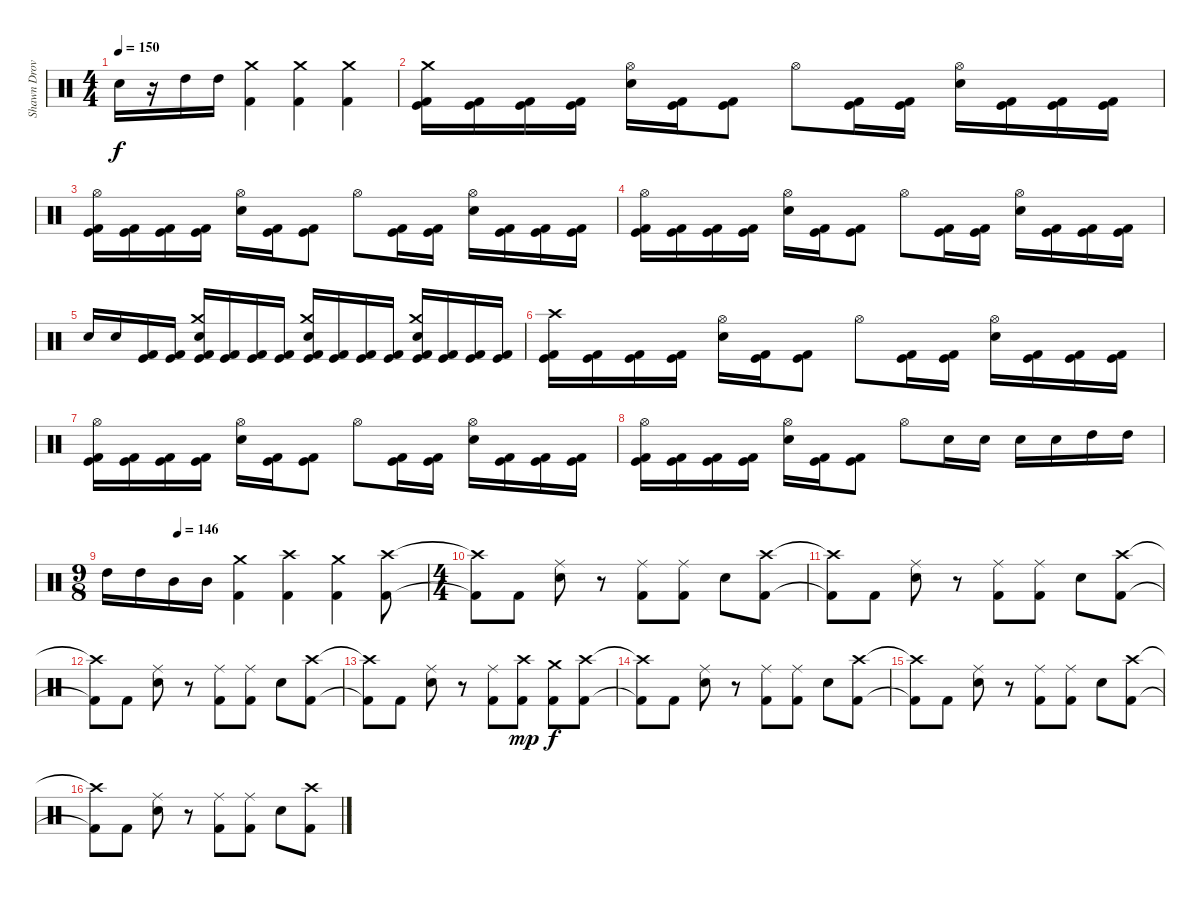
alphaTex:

\track ("Shawn Drover" "Shawn Drov") {instrument percussion}
\staff {score}
\articulation defaults
\ts (4 4)
\tempo 150
\clef neutral
\ks c "Snare (hit) 2".16{dy f}
r.16 "High Tom (hit)".16 "High Tom (hit)".16 ("Crash medium (hit)" "Kick (hit) 2").4 ("Crash medium (hit)" "Kick (hit) 2").4 ("Crash medium (hit)" "Kick (hit) 2").4 |
("Crash medium (hit)" "Kick (hit)" "Kick (hit) 2").16 ("Kick (hit)" "Kick (hit) 2").16 ("Kick (hit)" "Kick (hit) 2").16 ("Kick (hit)" "Kick (hit) 2").16 ("Hi-Hat (open)" "Snare (hit) 2").16 ("Kick (hit)" "Kick (hit) 2").16 ("Kick (hit)" "Kick (hit) 2").8 "Hi-Hat (open)".8 ("Kick (hit)" "Kick (hit) 2").16 ("Kick (hit)" "Kick (hit) 2").16 ("Hi-Hat (open)" "Snare (hit) 2").16 ("Kick (hit)" "Kick (hit) 2").16 ("Kick (hit)" "Kick (hit) 2").16 ("Kick (hit)" "Kick (hit) 2").16 |
("Hi-Hat (open)" "Kick (hit)" "Kick (hit) 2").16 ("Kick (hit)" "Kick (hit) 2").16 ("Kick (hit)" "Kick (hit) 2").16 ("Kick (hit)" "Kick (hit) 2").16 ("Hi-Hat (open)" "Snare (hit) 2").16 ("Kick (hit)" "Kick (hit) 2").16 ("Kick (hit)" "Kick (hit) 2").8 "Hi-Hat (open)".8 ("Kick (hit)" "Kick (hit) 2").16 ("Kick (hit)" "Kick (hit) 2").16 ("Hi-Hat (open)" "Snare (hit) 2").16 ("Kick (hit)" "Kick (hit) 2").16 ("Kick (hit)" "Kick (hit) 2").16 ("Kick (hit)" "Kick (hit) 2").16 |
("Hi-Hat (open)" "Kick (hit)" "Kick (hit) 2").16 ("Kick (hit)" "Kick (hit) 2").16 ("Kick (hit)" "Kick (hit) 2").16 ("Kick (hit)" "Kick (hit) 2").16 ("Hi-Hat (open)" "Snare (hit) 2").16 ("Kick (hit)" "Kick (hit) 2").16 ("Kick (hit)" "Kick (hit) 2").8 "Hi-Hat (open)".8 ("Kick (hit)" "Kick (hit) 2").16 ("Kick (hit)" "Kick (hit) 2").16 ("Hi-Hat (open)" "Snare (hit) 2").16 ("Kick (hit)" "Kick (hit) 2").16 ("Kick (hit)" "Kick (hit) 2").16 ("Kick (hit)" "Kick (hit) 2").16 |
"Snare (hit) 2".16 "Snare (hit) 2".16 ("Kick (hit)" "Kick (hit) 2").16 ("Kick (hit)" "Kick (hit) 2").16 ("Crash medium (hit)" "Snare (hit) 2" "Kick (hit)" "Kick (hit) 2").16 ("Kick (hit)" "Kick (hit) 2").16 ("Kick (hit)" "Kick (hit) 2").16 ("Kick (hit)" "Kick (hit) 2").16 ("Crash medium (hit)" "Snare (hit) 2" "Kick (hit)" "Kick (hit) 2").16 ("Kick (hit)" "Kick (hit) 2").16 ("Kick (hit)" "Kick (hit) 2").16 ("Kick (hit)" "Kick (hit) 2").16 ("Crash medium (hit)" "Snare (hit) 2" "Kick (hit)" "Kick (hit) 2").16 ("Kick (hit)" "Kick (hit) 2").16 ("Kick (hit)" "Kick (hit) 2").16 ("Kick (hit)" "Kick (hit) 2").16 |
("Crash high (hit)" "Kick (hit)" "Kick (hit) 2").16 ("Kick (hit)" "Kick (hit) 2").16 ("Kick (hit)" "Kick (hit) 2").16 ("Kick (hit)" "Kick (hit) 2").16 ("Hi-Hat (open)" "Snare (hit) 2").16 ("Kick (hit)" "Kick (hit) 2").16 ("Kick (hit)" "Kick (hit) 2").8 "Hi-Hat (open)".8 ("Kick (hit)" "Kick (hit) 2").16 ("Kick (hit)" "Kick (hit) 2").16 ("Hi-Hat (open)" "Snare (hit) 2").16 ("Kick (hit)" "Kick (hit) 2").16 ("Kick (hit)" "Kick (hit) 2").16 ("Kick (hit)" "Kick (hit) 2").16 |
("Hi-Hat (open)" "Kick (hit)" "Kick (hit) 2").16 ("Kick (hit)" "Kick (hit) 2").16 ("Kick (hit)" "Kick (hit) 2").16 ("Kick (hit)" "Kick (hit) 2").16 ("Hi-Hat (open)" "Snare (hit) 2").16 ("Kick (hit)" "Kick (hit) 2").16 ("Kick (hit)" "Kick (hit) 2").8 "Hi-Hat (open)".8 ("Kick (hit)" "Kick (hit) 2").16 ("Kick (hit)" "Kick (hit) 2").16 ("Hi-Hat (open)" "Snare (hit) 2").16 ("Kick (hit)" "Kick (hit) 2").16 ("Kick (hit)" "Kick (hit) 2").16 ("Kick (hit)" "Kick (hit) 2").16 |
("Hi-Hat (open)" "Kick (hit)" "Kick (hit) 2").16 ("Kick (hit)" "Kick (hit) 2").16 ("Kick (hit)" "Kick (hit) 2").16 ("Kick (hit)" "Kick (hit) 2").16 ("Hi-Hat (open)" "Snare (hit) 2").16 ("Kick (hit)" "Kick (hit) 2").16 ("Kick (hit)" "Kick (hit) 2").8 "Hi-Hat (open)".8 "Snare (hit) 2".16 "Snare (hit) 2".16 "Snare (hit) 2".16 "Snare (hit) 2".16 "High Tom (hit)".16 "High Tom (hit)".16 |
\ts (9 8)
\tempo (146 0.2222222222222222)
"High Tom (hit)".16 "High Tom (hit)".16 "Mid Tom (hit)".16 "Mid Tom (hit)".16 ("Crash medium (hit)" "Kick (hit) 2").4 ("Crash high (hit)" "Kick (hit) 2").4 ("Crash medium (hit)" "Kick (hit) 2").4 ("Crash high (hit)" "Kick (hit) 2").8 |
\ts (4 4)
("Crash high (hit)"{t} "Kick (hit) 2"{t}).8 "Kick (hit) 2".8 ("Ride (middle)" "Snare (hit) 2").8 r.8 ("Ride (middle)" "Kick (hit) 2").8 ("Ride (middle)" "Kick (hit) 2").8 "Snare (hit) 2".8 ("Crash high (hit)" "Kick (hit) 2").8 |
("Crash high (hit)"{t} "Kick (hit) 2"{t}).8 "Kick (hit) 2".8 ("Ride (middle)" "Snare (hit) 2").8 r.8 ("Ride (middle)" "Kick (hit) 2").8 ("Ride (middle)" "Kick (hit) 2").8 "Snare (hit) 2".8 ("Crash high (hit)" "Kick (hit) 2").8 |
("Crash high (hit)"{t} "Kick (hit) 2"{t}).8 "Kick (hit) 2".8 ("Ride (middle)" "Snare (hit) 2").8 r.8 ("Ride (middle)" "Kick (hit) 2").8 ("Ride (middle)" "Kick (hit) 2").8 "Snare (hit) 2".8 ("Crash high (hit)" "Kick (hit) 2").8 |
("Crash high (hit)"{t} "Kick (hit) 2"{t}).8 "Kick (hit) 2".8 ("Ride (middle)" "Snare (hit) 2").8 r.8 ("Ride (middle)" "Kick (hit) 2").8 ("Crash high (hit)" "Kick (hit) 2").8{dy mp} ("Crash medium (hit)" "Kick (hit) 2").8{dy f} ("Crash high (hit)" "Kick (hit) 2").8 |
("Crash high (hit)"{t} "Kick (hit) 2"{t}).8 "Kick (hit) 2".8 ("Ride (middle)" "Snare (hit) 2").8 r.8 ("Ride (middle)" "Kick (hit) 2").8 ("Ride (middle)" "Kick (hit) 2").8 "Snare (hit) 2".8 ("Crash high (hit)" "Kick (hit) 2").8 |
("Crash high (hit)"{t} "Kick (hit) 2"{t}).8 "Kick (hit) 2".8 ("Ride (middle)" "Snare (hit) 2").8 r.8 ("Ride (middle)" "Kick (hit) 2").8 ("Ride (middle)" "Kick (hit) 2").8 "Snare (hit) 2".8 ("Crash high (hit)" "Kick (hit) 2").8 |
("Crash high (hit)"{t} "Kick (hit) 2"{t}).8 "Kick (hit) 2".8 ("Ride (middle)" "Snare (hit) 2").8 r.8 ("Ride (middle)" "Kick (hit) 2").8 ("Ride (middle)" "Kick (hit) 2").8 "Snare (hit) 2".8 ("Crash high (hit)" "Kick (hit) 2").8
